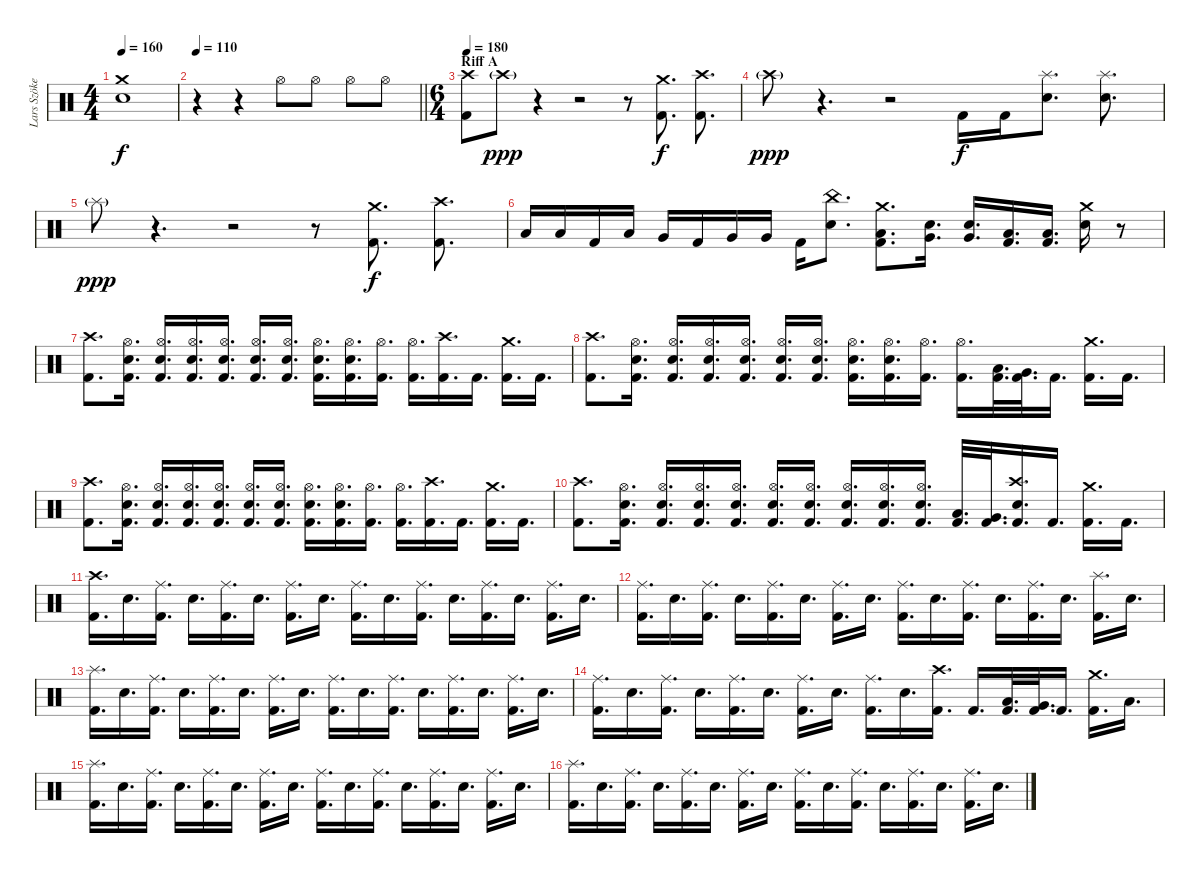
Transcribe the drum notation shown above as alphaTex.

\track ("Lars Szöke" "Lars Szöke") {instrument percussion}
\staff {score}
\articulation defaults
\ts (4 4)
\tempo 160
\clef neutral
\ks c
("Crash medium (hit)" "Snare (hit) 2").1{dy f} |
\tempo 110
\barLineRight lightlight
r.4 r.4 "Hi-Hat (open)".8 "Hi-Hat (open)".8 "Hi-Hat (open)".8 "Hi-Hat (open)".8 |
\ts (6 4)
\section ("" "Riff A")
\tempo 180
("Crash high (hit)" "Kick (hit) 2").8 "Crash high (hit)"{g}.8{dy ppp} r.4 r.2 r.8 ("Crash medium (hit)" "Kick (hit) 2").8{d dy f} ("Crash high (hit)" "Kick (hit) 2").8{d} |
"Crash high (hit)"{g}.8{dy ppp} r.4{d} r.2 "Kick (hit) 2".16{dy f} "Kick (hit) 2".16 ("Splash (hit)" "Snare (hit) 2").8{d} ("Splash (hit)" "Snare (hit) 2").8{d} |
"Splash (hit)"{g}.8{dy ppp} r.4{d} r.2 r.8 ("Crash medium (hit)" "Kick (hit) 2").8{d dy f} ("Crash high (hit)" "Kick (hit) 2").8{d} |
"Low Tom (hit)".16 "Low Tom (hit)".16 "Kick (hit) 2".16 "Low Tom (hit)".16 "Very Low Tom (hit)".16 "Kick (hit) 2".16 "Very Low Tom (hit)".16 "Very Low Tom (hit)".16 "Kick (hit) 2".16 ("China (hit)" "Snare (hit) 2").8{d} ("Crash medium (hit)" "Low Floor Tom (hit)" "Kick (hit) 2").8{d} ("Very Low Tom (hit)" "Snare (hit) 2").16{d} ("Very Low Tom (hit)" "Snare (hit) 2").16{d} ("Low Floor Tom (hit)" "Kick (hit) 2").16{d} ("Low Floor Tom (hit)" "Kick (hit) 2").16{d} ("Crash medium (hit)" "Snare (hit) 2").16 r.8 |
("Crash high (hit)" "Kick (hit) 2").8{d} ("Hi-Hat (open)" "Snare (hit) 2" "Kick (hit) 2").16{d} ("Hi-Hat (open)" "Snare (hit) 2" "Kick (hit) 2").16{d} ("Hi-Hat (open)" "Snare (hit) 2" "Kick (hit) 2").16{d} ("Hi-Hat (open)" "Snare (hit) 2" "Kick (hit) 2").16{d} ("Hi-Hat (open)" "Snare (hit) 2" "Kick (hit) 2").16{d} ("Hi-Hat (open)" "Snare (hit) 2" "Kick (hit) 2").16{d} ("Hi-Hat (open)" "Snare (hit) 2" "Kick (hit) 2").16{d} ("Hi-Hat (open)" "Snare (hit) 2" "Kick (hit) 2").16{d} ("Hi-Hat (open)" "Kick (hit) 2").16{d} ("Hi-Hat (open)" "Kick (hit) 2").16{d} ("Crash high (hit)" "Kick (hit) 2").16{d} "Kick (hit) 2".16{d} ("Crash medium (hit)" "Kick (hit) 2").16{d} "Kick (hit) 2".16{d} |
("Crash high (hit)" "Kick (hit) 2").8{d} ("Hi-Hat (open)" "Snare (hit) 2" "Kick (hit) 2").16{d} ("Hi-Hat (open)" "Snare (hit) 2" "Kick (hit) 2").16{d} ("Hi-Hat (open)" "Snare (hit) 2" "Kick (hit) 2").16{d} ("Hi-Hat (open)" "Snare (hit) 2" "Kick (hit) 2").16{d} ("Hi-Hat (open)" "Snare (hit) 2" "Kick (hit) 2").16{d} ("Hi-Hat (open)" "Snare (hit) 2" "Kick (hit) 2").16{d} ("Hi-Hat (open)" "Snare (hit) 2" "Kick (hit) 2").16{d} ("Hi-Hat (open)" "Snare (hit) 2" "Kick (hit) 2").16{d} ("Hi-Hat (open)" "Kick (hit) 2").16{d} ("Hi-Hat (open)" "Kick (hit) 2").16{d} ("Low Tom (hit)" "Kick (hit) 2").32{d} ("Very Low Tom (hit)" "Kick (hit) 2").32{d} "Kick (hit) 2".16{d} ("Crash medium (hit)" "Kick (hit) 2").16{d} "Kick (hit) 2".16{d} |
("Crash high (hit)" "Kick (hit) 2").8{d} ("Hi-Hat (open)" "Snare (hit) 2" "Kick (hit) 2").16{d} ("Hi-Hat (open)" "Snare (hit) 2" "Kick (hit) 2").16{d} ("Hi-Hat (open)" "Snare (hit) 2" "Kick (hit) 2").16{d} ("Hi-Hat (open)" "Snare (hit) 2" "Kick (hit) 2").16{d} ("Hi-Hat (open)" "Snare (hit) 2" "Kick (hit) 2").16{d} ("Hi-Hat (open)" "Snare (hit) 2" "Kick (hit) 2").16{d} ("Hi-Hat (open)" "Snare (hit) 2" "Kick (hit) 2").16{d} ("Hi-Hat (open)" "Snare (hit) 2" "Kick (hit) 2").16{d} ("Hi-Hat (open)" "Kick (hit) 2").16{d} ("Hi-Hat (open)" "Kick (hit) 2").16{d} ("Crash high (hit)" "Kick (hit) 2").16{d} "Kick (hit) 2".16{d} ("Crash medium (hit)" "Kick (hit) 2").16{d} "Kick (hit) 2".16{d} |
("Crash high (hit)" "Kick (hit) 2").8{d} ("Hi-Hat (open)" "Snare (hit) 2" "Kick (hit) 2").16{d} ("Hi-Hat (open)" "Snare (hit) 2" "Kick (hit) 2").16{d} ("Hi-Hat (open)" "Snare (hit) 2" "Kick (hit) 2").16{d} ("Hi-Hat (open)" "Snare (hit) 2" "Kick (hit) 2").16{d} ("Hi-Hat (open)" "Snare (hit) 2" "Kick (hit) 2").16{d} ("Hi-Hat (open)" "Snare (hit) 2" "Kick (hit) 2").16{d} ("Hi-Hat (open)" "Snare (hit) 2" "Kick (hit) 2").16{d} ("Hi-Hat (open)" "Snare (hit) 2" "Kick (hit) 2").16{d} ("Hi-Hat (open)" "Snare (hit) 2" "Kick (hit) 2").16{d} ("Low Tom (hit)" "Kick (hit) 2").32{d} ("Very Low Tom (hit)" "Kick (hit) 2").32{d} ("Crash high (hit)" "Snare (hit) 2" "Kick (hit) 2").16{d} "Kick (hit) 2".16{d} ("Crash medium (hit)" "Kick (hit) 2").16{d} "Kick (hit) 2".16{d} |
("Crash high (hit)" "Kick (hit) 2").16{d} "Snare (hit) 2".16{d} ("Ride (middle)" "Kick (hit) 2").16{d} "Snare (hit) 2".16{d} ("Ride (middle)" "Kick (hit) 2").16{d} "Snare (hit) 2".16{d} ("Ride (middle)" "Kick (hit) 2").16{d} "Snare (hit) 2".16{d} ("Ride (middle)" "Kick (hit) 2").16{d} "Snare (hit) 2".16{d} ("Ride (middle)" "Kick (hit) 2").16{d} "Snare (hit) 2".16{d} ("Ride (middle)" "Kick (hit) 2").16{d} "Snare (hit) 2".16{d} ("Ride (middle)" "Kick (hit) 2").16{d} "Snare (hit) 2".16{d} |
("Ride (middle)" "Kick (hit) 2").16{d} "Snare (hit) 2".16{d} ("Ride (middle)" "Kick (hit) 2").16{d} "Snare (hit) 2".16{d} ("Ride (middle)" "Kick (hit) 2").16{d} "Snare (hit) 2".16{d} ("Ride (middle)" "Kick (hit) 2").16{d} "Snare (hit) 2".16{d} ("Ride (middle)" "Kick (hit) 2").16{d} "Snare (hit) 2".16{d} ("Ride (middle)" "Kick (hit) 2").16{d} "Snare (hit) 2".16{d} ("Ride (middle)" "Kick (hit) 2").16{d} "Snare (hit) 2".16{d} ("Splash (hit)" "Kick (hit) 2").16{d} "Snare (hit) 2".16{d} |
("Splash (hit)" "Kick (hit) 2").16{d} "Snare (hit) 2".16{d} ("Ride (middle)" "Kick (hit) 2").16{d} "Snare (hit) 2".16{d} ("Ride (middle)" "Kick (hit) 2").16{d} "Snare (hit) 2".16{d} ("Ride (middle)" "Kick (hit) 2").16{d} "Snare (hit) 2".16{d} ("Ride (middle)" "Kick (hit) 2").16{d} "Snare (hit) 2".16{d} ("Ride (middle)" "Kick (hit) 2").16{d} "Snare (hit) 2".16{d} ("Ride (middle)" "Kick (hit) 2").16{d} "Snare (hit) 2".16{d} ("Ride (middle)" "Kick (hit) 2").16{d} "Snare (hit) 2".16{d} |
("Ride (middle)" "Kick (hit) 2").16{d} "Snare (hit) 2".16{d} ("Ride (middle)" "Kick (hit) 2").16{d} "Snare (hit) 2".16{d} ("Ride (middle)" "Kick (hit) 2").16{d} "Snare (hit) 2".16{d} ("Ride (middle)" "Kick (hit) 2").16{d} "Snare (hit) 2".16{d} ("Ride (middle)" "Kick (hit) 2").16{d} "Snare (hit) 2".16{d} ("Crash high (hit)" "Kick (hit) 2").16{d} "Kick (hit) 2".16{d} ("Low Tom (hit)" "Kick (hit) 2").32{d} ("Very Low Tom (hit)" "Kick (hit) 2").32{d} "Kick (hit) 2".16{d} ("Crash medium (hit)" "Kick (hit) 2").16{d} "Low Floor Tom (hit)".16{d} |
("Splash (hit)" "Kick (hit) 2").16{d} "Snare (hit) 2".16{d} ("Ride (middle)" "Kick (hit) 2").16{d} "Snare (hit) 2".16{d} ("Ride (middle)" "Kick (hit) 2").16{d} "Snare (hit) 2".16{d} ("Ride (middle)" "Kick (hit) 2").16{d} "Snare (hit) 2".16{d} ("Ride (middle)" "Kick (hit) 2").16{d} "Snare (hit) 2".16{d} ("Ride (middle)" "Kick (hit) 2").16{d} "Snare (hit) 2".16{d} ("Ride (middle)" "Kick (hit) 2").16{d} "Snare (hit) 2".16{d} ("Ride (middle)" "Kick (hit) 2").16{d} "Snare (hit) 2".16{d} |
("Splash (hit)" "Kick (hit) 2").16{d} "Snare (hit) 2".16{d} ("Ride (middle)" "Kick (hit) 2").16{d} "Snare (hit) 2".16{d} ("Ride (middle)" "Kick (hit) 2").16{d} "Snare (hit) 2".16{d} ("Ride (middle)" "Kick (hit) 2").16{d} "Snare (hit) 2".16{d} ("Ride (middle)" "Kick (hit) 2").16{d} "Snare (hit) 2".16{d} ("Ride (middle)" "Kick (hit) 2").16{d} "Snare (hit) 2".16{d} ("Ride (middle)" "Kick (hit) 2").16{d} "Snare (hit) 2".16{d} ("Ride (middle)" "Kick (hit) 2").16{d} "Snare (hit) 2".16{d}
